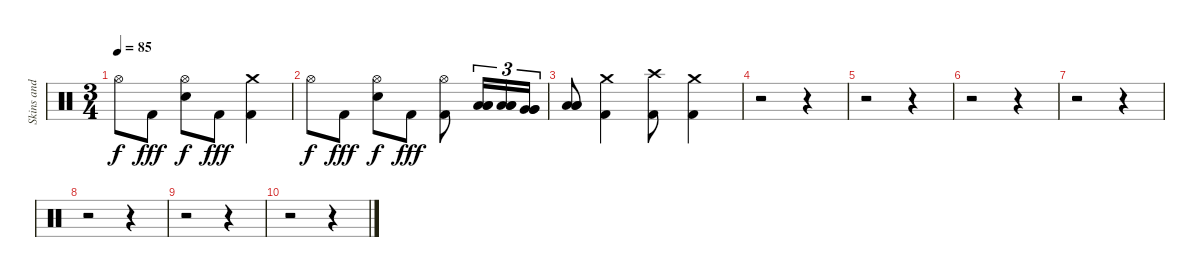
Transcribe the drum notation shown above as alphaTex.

\track ("Skins and Cymbals" "Skins and ") {instrument percussion}
\staff {score}
\articulation defaults
\ts (3 4)
\tempo 85
\clef neutral
\ks c "Hi-Hat (open)".8{dy f} "Kick (hit) 2".8{dy fff}
("Hi-Hat (open)" "Electric Snare (hit)").8{dy f} "Kick (hit) 2".8{dy fff} ("Crash medium (hit)" "Kick (hit) 2").4 |
"Hi-Hat (open)".8{dy f} "Kick (hit) 2".8{dy fff} ("Hi-Hat (open)" "Electric Snare (hit)").8{dy f} "Kick (hit) 2".8{dy fff} ("Hi-Hat (open)" "Kick (hit) 2").8 ("Low Tom (hit)" "Low Tom (hit)" "Low Tom (hit)").16{tu (3 2)} ("Low Tom (hit)" "Low Tom (hit)" "Low Tom (hit)").16{tu (3 2)} ("Very Low Tom (hit)" "Very Low Tom (hit)" "Very Low Tom (hit)").16{tu (3 2)} |
("Low Floor Tom (hit)" "Low Floor Tom (hit)" "Low Floor Tom (hit)").8 ("Crash medium (hit)" "Kick (hit) 2").4 ("Crash high (hit)" "Kick (hit) 2").8 ("Crash medium (hit)" "Kick (hit) 2").4 |
r.2 r.4 |
r.2 r.4 |
r.2 r.4 |
r.2 r.4 |
r.2 r.4 |
r.2 r.4 |
r.2 r.4
